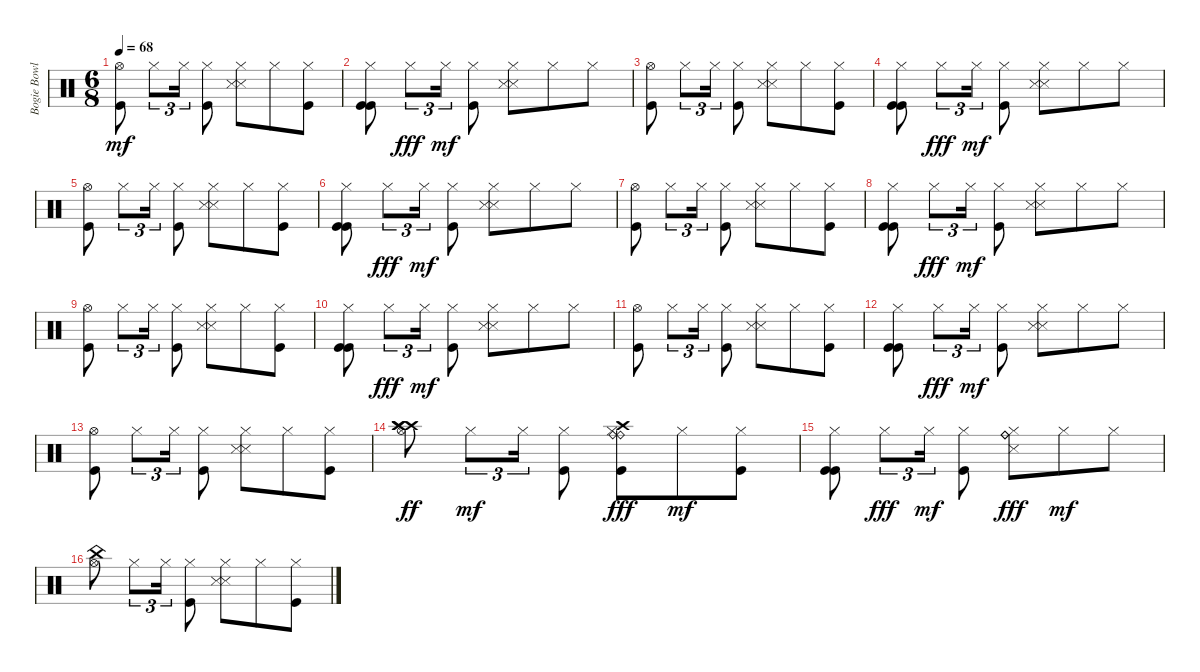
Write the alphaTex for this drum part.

\track ("Bogie Bowles" "Bogie Bowl") {instrument percussion}
\staff {score}
\articulation defaults
\ts (6 8)
\tempo 68
\clef neutral
\ks c
("Hi-Hat (open)" "Kick (hit)").8{dy mf} "Hi-Hat (closed)".8{tu (3 2)} "Hi-Hat (closed)".16{tu (3 2)} ("Hi-Hat (closed)" "Kick (hit)").8 ("Hi-Hat (closed)" "Snare (side stick) 3" "Snare (side stick) 3").8 "Hi-Hat (closed)".8 ("Hi-Hat (closed)" "Kick (hit)").8 |
("Hi-Hat (closed)" "Kick (hit)" "Kick (hit)").8 "Hi-Hat (closed)".8{tu (3 2) dy fff} "Hi-Hat (closed)".16{tu (3 2) dy mf} ("Hi-Hat (closed)" "Kick (hit)").8 ("Hi-Hat (closed)" "Snare (side stick) 3" "Snare (side stick) 3").8 "Hi-Hat (closed)".8 "Hi-Hat (closed)".8 |
("Hi-Hat (open)" "Kick (hit)").8 "Hi-Hat (closed)".8{tu (3 2)} "Hi-Hat (closed)".16{tu (3 2)} ("Hi-Hat (closed)" "Kick (hit)").8 ("Hi-Hat (closed)" "Snare (side stick) 3" "Snare (side stick) 3").8 "Hi-Hat (closed)".8 ("Hi-Hat (closed)" "Kick (hit)").8 |
("Hi-Hat (closed)" "Kick (hit)" "Kick (hit)").8 "Hi-Hat (closed)".8{tu (3 2) dy fff} "Hi-Hat (closed)".16{tu (3 2) dy mf} ("Hi-Hat (closed)" "Kick (hit)").8 ("Hi-Hat (closed)" "Snare (side stick) 3" "Snare (side stick) 3").8 "Hi-Hat (closed)".8 "Hi-Hat (closed)".8 |
("Hi-Hat (open)" "Kick (hit)").8 "Hi-Hat (closed)".8{tu (3 2)} "Hi-Hat (closed)".16{tu (3 2)} ("Hi-Hat (closed)" "Kick (hit)").8 ("Hi-Hat (closed)" "Snare (side stick) 3" "Snare (side stick) 3").8 "Hi-Hat (closed)".8 ("Hi-Hat (closed)" "Kick (hit)").8 |
("Hi-Hat (closed)" "Kick (hit)" "Kick (hit)").8 "Hi-Hat (closed)".8{tu (3 2) dy fff} "Hi-Hat (closed)".16{tu (3 2) dy mf} ("Hi-Hat (closed)" "Kick (hit)").8 ("Hi-Hat (closed)" "Snare (side stick) 3" "Snare (side stick) 3").8 "Hi-Hat (closed)".8 "Hi-Hat (closed)".8 |
("Hi-Hat (open)" "Kick (hit)").8 "Hi-Hat (closed)".8{tu (3 2)} "Hi-Hat (closed)".16{tu (3 2)} ("Hi-Hat (closed)" "Kick (hit)").8 ("Hi-Hat (closed)" "Snare (side stick) 3" "Snare (side stick) 3").8 "Hi-Hat (closed)".8 ("Hi-Hat (closed)" "Kick (hit)").8 |
("Hi-Hat (closed)" "Kick (hit)" "Kick (hit)").8 "Hi-Hat (closed)".8{tu (3 2) dy fff} "Hi-Hat (closed)".16{tu (3 2) dy mf} ("Hi-Hat (closed)" "Kick (hit)").8 ("Hi-Hat (closed)" "Snare (side stick) 3" "Snare (side stick) 3").8 "Hi-Hat (closed)".8 "Hi-Hat (closed)".8 |
("Hi-Hat (open)" "Kick (hit)").8 "Hi-Hat (closed)".8{tu (3 2)} "Hi-Hat (closed)".16{tu (3 2)} ("Hi-Hat (closed)" "Kick (hit)").8 ("Hi-Hat (closed)" "Snare (side stick) 3" "Snare (side stick) 3").8 "Hi-Hat (closed)".8 ("Hi-Hat (closed)" "Kick (hit)").8 |
("Hi-Hat (closed)" "Kick (hit)" "Kick (hit)").8 "Hi-Hat (closed)".8{tu (3 2) dy fff} "Hi-Hat (closed)".16{tu (3 2) dy mf} ("Hi-Hat (closed)" "Kick (hit)").8 ("Hi-Hat (closed)" "Snare (side stick) 3" "Snare (side stick) 3").8 "Hi-Hat (closed)".8 "Hi-Hat (closed)".8 |
("Hi-Hat (open)" "Kick (hit)").8 "Hi-Hat (closed)".8{tu (3 2)} "Hi-Hat (closed)".16{tu (3 2)} ("Hi-Hat (closed)" "Kick (hit)").8 ("Hi-Hat (closed)" "Snare (side stick) 3" "Snare (side stick) 3").8 "Hi-Hat (closed)".8 ("Hi-Hat (closed)" "Kick (hit)").8 |
("Hi-Hat (closed)" "Kick (hit)" "Kick (hit)").8 "Hi-Hat (closed)".8{tu (3 2) dy fff} "Hi-Hat (closed)".16{tu (3 2) dy mf} ("Hi-Hat (closed)" "Kick (hit)").8 ("Hi-Hat (closed)" "Snare (side stick) 3" "Snare (side stick) 3").8 "Hi-Hat (closed)".8 "Hi-Hat (closed)".8 |
("Hi-Hat (open)" "Kick (hit)").8 "Hi-Hat (closed)".8{tu (3 2)} "Hi-Hat (closed)".16{tu (3 2)} ("Hi-Hat (closed)" "Kick (hit)").8 ("Hi-Hat (closed)" "Snare (side stick) 3" "Snare (side stick) 3").8 "Hi-Hat (closed)".8 ("Hi-Hat (closed)" "Kick (hit)").8 |
("Hi-Hat (open)" "Crash high (hit)" "Crash high (hit)" "Crash high (hit)").8{dy ff} "Hi-Hat (closed)".8{tu (3 2) dy mf} "Hi-Hat (closed)".16{tu (3 2)} ("Hi-Hat (closed)" "Kick (hit)").8 ("Hi-Hat (closed)" "Kick (hit)" "Crash high (hit)" "Ride (bell)" "Ride (bell)").8{dy fff} "Hi-Hat (closed)".8{dy mf} ("Hi-Hat (closed)" "Kick (hit)").8 |
("Hi-Hat (closed)" "Kick (hit)" "Kick (hit)").8 "Hi-Hat (closed)".8{tu (3 2) dy fff} "Hi-Hat (closed)".16{tu (3 2) dy mf} ("Hi-Hat (closed)" "Kick (hit)").8 ("Hi-Hat (closed)" "Snare (side stick) 3" "Ride (bell)" "Ride (bell)").8{dy fff} "Hi-Hat (closed)".8{dy mf} "Hi-Hat (closed)".8 |
("Hi-Hat (open)" "China (hit)").8 "Hi-Hat (closed)".8{tu (3 2)} "Hi-Hat (closed)".16{tu (3 2)} ("Hi-Hat (closed)" "Kick (hit)").8 ("Hi-Hat (closed)" "Snare (side stick) 3" "Snare (side stick) 3").8 "Hi-Hat (closed)".8 ("Hi-Hat (closed)" "Kick (hit)").8
